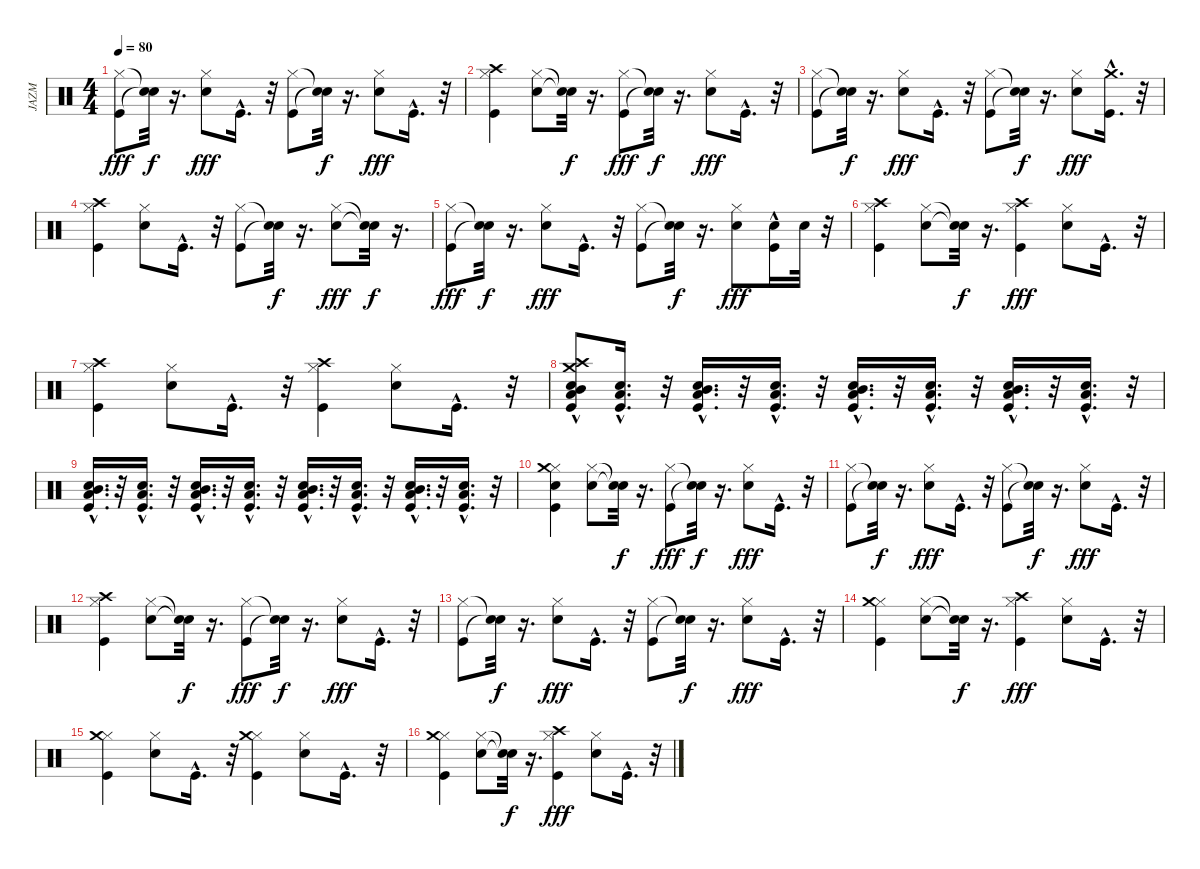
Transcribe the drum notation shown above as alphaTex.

\track ("JAZM" "JAZM") {instrument percussion}
\staff {score}
\articulation defaults
\ts (4 4)
\tempo 80
\clef neutral
\ks c
("Hi-Hat (closed)" "Kick (hit)").8{dy fff} ("Snare (hit)"{t} "Snare (hit)"{t}).32{dy f} r.16{d} ("Hi-Hat (closed)" "Snare (hit) 2").8{dy fff} "Kick (hit)"{hac}.16{d} r.32 ("Hi-Hat (closed)" "Kick (hit)").8 ("Snare (hit)"{t} "Snare (hit)"{t}).32{dy f} r.16{d} ("Hi-Hat (closed)" "Snare (hit) 2").8{dy fff} "Kick (hit)"{hac}.16{d} r.32 |
("Hi-Hat (closed)" "Kick (hit)" "Crash high (hit)").4 ("Hi-Hat (closed)" "Snare (hit) 2").8 ("Snare (hit)"{t} "Snare (hit)"{t}).32{dy f} r.16{d} ("Hi-Hat (closed)" "Kick (hit)").8{dy fff} ("Snare (hit)"{t} "Snare (hit)"{t}).32{dy f} r.16{d} ("Hi-Hat (closed)" "Snare (hit) 2").8{dy fff} "Kick (hit)"{hac}.16{d} r.32 |
("Hi-Hat (closed)" "Kick (hit)").8 ("Snare (hit)"{t} "Snare (hit)"{t}).32{dy f} r.16{d} ("Hi-Hat (closed)" "Snare (hit) 2").8{dy fff} "Kick (hit)"{hac}.16{d} r.32 ("Hi-Hat (closed)" "Kick (hit)").8 ("Snare (hit)"{t} "Snare (hit)"{t}).32{dy f} r.16{d} ("Hi-Hat (closed)" "Snare (hit) 2").8{dy fff} ("Kick (hit)"{hac} "Crash medium (hit)"{hac}).16{d} r.32 |
("Hi-Hat (closed)" "Kick (hit)" "Crash high (hit)").4 ("Hi-Hat (closed)" "Snare (hit) 2").8 "Kick (hit)"{hac}.16{d} r.32 ("Hi-Hat (closed)" "Kick (hit)").8 ("Snare (hit)"{t} "Snare (hit)"{t}).32{dy f} r.16{d} ("Hi-Hat (closed)" "Snare (hit) 2").8{dy fff} ("Snare (hit)"{t} "Snare (hit)"{t}).32{dy f} r.16{d} |
("Hi-Hat (closed)" "Kick (hit)").8{dy fff} ("Snare (hit)"{t} "Snare (hit)"{t}).32{dy f} r.16{d} ("Hi-Hat (closed)" "Snare (hit) 2").8{dy fff} "Kick (hit)"{hac}.16{d} r.32 ("Hi-Hat (closed)" "Kick (hit)").8 ("Snare (hit)"{t} "Snare (hit)"{t}).32{dy f} r.16{d} ("Hi-Hat (closed)" "Snare (hit) 2").8{dy fff} ("Kick (hit)"{hac} "Snare (hit) 2").16 "Snare (hit) 2".32 r.32 |
("Hi-Hat (closed)" "Kick (hit)" "Crash high (hit)").4 ("Hi-Hat (closed)" "Snare (hit) 2").8 ("Snare (hit)"{t} "Snare (hit)"{t}).32{dy f} r.16{d} ("Hi-Hat (closed)" "Kick (hit)" "Crash high (hit)").4{dy fff} ("Hi-Hat (closed)" "Snare (hit) 2").8 "Kick (hit)"{hac}.16{d} r.32 |
("Hi-Hat (closed)" "Kick (hit)" "Crash high (hit)").4 ("Hi-Hat (closed)" "Snare (hit) 2").8 "Kick (hit)"{hac}.16{d} r.32 ("Hi-Hat (closed)" "Kick (hit)" "Crash high (hit)").4 ("Hi-Hat (closed)" "Snare (hit) 2").8 "Kick (hit)"{hac}.16{d} r.32 |
("Kick (hit)"{hac} "Mid Tom (hit)"{hac} "Low Tom (hit)"{hac} "Snare (hit) 2" "Crash medium (hit)" "Crash high (hit)").8 ("Kick (hit)"{hac} "Low Tom (hit)"{hac} "Snare (hit) 2"{hac}).16{d} r.32 ("Kick (hit)"{hac} "Mid Tom (hit)"{hac} "Low Tom (hit)"{hac} "Snare (hit) 2"{hac}).16{d} r.32 ("Kick (hit)"{hac} "Low Tom (hit)"{hac} "Snare (hit) 2"{hac}).16{d} r.32 ("Kick (hit)"{hac} "Mid Tom (hit)"{hac} "Low Tom (hit)"{hac} "Snare (hit) 2"{hac}).16{d} r.32 ("Kick (hit)"{hac} "Low Tom (hit)"{hac} "Snare (hit) 2"{hac}).16{d} r.32 ("Kick (hit)"{hac} "Mid Tom (hit)"{hac} "Low Tom (hit)"{hac} "Snare (hit) 2"{hac}).16{d} r.32 ("Kick (hit)"{hac} "Low Tom (hit)"{hac} "Snare (hit) 2"{hac}).16{d} r.32 |
("Kick (hit)"{hac} "Mid Tom (hit)"{hac} "Low Tom (hit)"{hac} "Snare (hit) 2"{hac}).16{d} r.32 ("Kick (hit)"{hac} "Low Tom (hit)"{hac} "Snare (hit) 2"{hac}).16{d} r.32 ("Kick (hit)"{hac} "Mid Tom (hit)"{hac} "Low Tom (hit)"{hac} "Snare (hit) 2"{hac}).16{d} r.32 ("Kick (hit)"{hac} "Low Tom (hit)"{hac} "Snare (hit) 2"{hac}).16{d} r.32 ("Kick (hit)"{hac} "Mid Tom (hit)"{hac} "Low Tom (hit)"{hac} "Snare (hit) 2"{hac}).16{d} r.32 ("Kick (hit)"{hac} "Low Tom (hit)"{hac} "Snare (hit) 2"{hac}).16{d} r.32 ("Kick (hit)"{hac} "Mid Tom (hit)"{hac} "Low Tom (hit)"{hac} "Snare (hit) 2"{hac}).16{d} r.32 ("Kick (hit)"{hac} "Low Tom (hit)"{hac} "Snare (hit) 2"{hac}).16{d} r.32 |
("Hi-Hat (closed)" "Kick (hit)" "Crash medium (hit)" "Snare (hit) 2").4 ("Hi-Hat (closed)" "Snare (hit) 2").8 ("Snare (hit)"{t} "Snare (hit)"{t}).32{dy f} r.16{d} ("Hi-Hat (closed)" "Kick (hit)").8{dy fff} ("Snare (hit)"{t} "Snare (hit)"{t}).32{dy f} r.16{d} ("Hi-Hat (closed)" "Snare (hit) 2").8{dy fff} "Kick (hit)"{hac}.16{d} r.32 |
("Hi-Hat (closed)" "Kick (hit)").8 ("Snare (hit)"{t} "Snare (hit)"{t}).32{dy f} r.16{d} ("Hi-Hat (closed)" "Snare (hit) 2").8{dy fff} "Kick (hit)"{hac}.16{d} r.32 ("Hi-Hat (closed)" "Kick (hit)").8 ("Snare (hit)"{t} "Snare (hit)"{t}).32{dy f} r.16{d} ("Hi-Hat (closed)" "Snare (hit) 2").8{dy fff} "Kick (hit)"{hac}.16{d} r.32 |
("Hi-Hat (closed)" "Kick (hit)" "Crash high (hit)").4 ("Hi-Hat (closed)" "Snare (hit) 2").8 ("Snare (hit)"{t} "Snare (hit)"{t}).32{dy f} r.16{d} ("Hi-Hat (closed)" "Kick (hit)").8{dy fff} ("Snare (hit)"{t} "Snare (hit)"{t}).32{dy f} r.16{d} ("Hi-Hat (closed)" "Snare (hit) 2").8{dy fff} "Kick (hit)"{hac}.16{d} r.32 |
("Hi-Hat (closed)" "Kick (hit)").8 ("Snare (hit)"{t} "Snare (hit)"{t}).32{dy f} r.16{d} ("Hi-Hat (closed)" "Snare (hit) 2").8{dy fff} "Kick (hit)"{hac}.16{d} r.32 ("Hi-Hat (closed)" "Kick (hit)").8 ("Snare (hit)"{t} "Snare (hit)"{t}).32{dy f} r.16{d} ("Hi-Hat (closed)" "Snare (hit) 2").8{dy fff} "Kick (hit)"{hac}.16{d} r.32 |
("Hi-Hat (closed)" "Kick (hit)" "Crash medium (hit)").4 ("Hi-Hat (closed)" "Snare (hit) 2").8 ("Snare (hit)"{t} "Snare (hit)"{t}).32{dy f} r.16{d} ("Hi-Hat (closed)" "Kick (hit)" "Crash high (hit)").4{dy fff} ("Hi-Hat (closed)" "Snare (hit) 2").8 "Kick (hit)"{hac}.16{d} r.32 |
("Hi-Hat (closed)" "Kick (hit)" "Crash medium (hit)").4 ("Hi-Hat (closed)" "Snare (hit) 2").8 "Kick (hit)"{hac}.16{d} r.32 ("Hi-Hat (closed)" "Kick (hit)" "Crash medium (hit)").4 ("Hi-Hat (closed)" "Snare (hit) 2").8 "Kick (hit)"{hac}.16{d} r.32 |
("Hi-Hat (closed)" "Kick (hit)" "Crash medium (hit)").4 ("Hi-Hat (closed)" "Snare (hit) 2").8 ("Snare (hit)"{t} "Snare (hit)"{t}).32{dy f} r.16{d} ("Hi-Hat (closed)" "Kick (hit)" "Crash high (hit)").4{dy fff} ("Hi-Hat (closed)" "Snare (hit) 2").8 "Kick (hit)"{hac}.16{d} r.32
